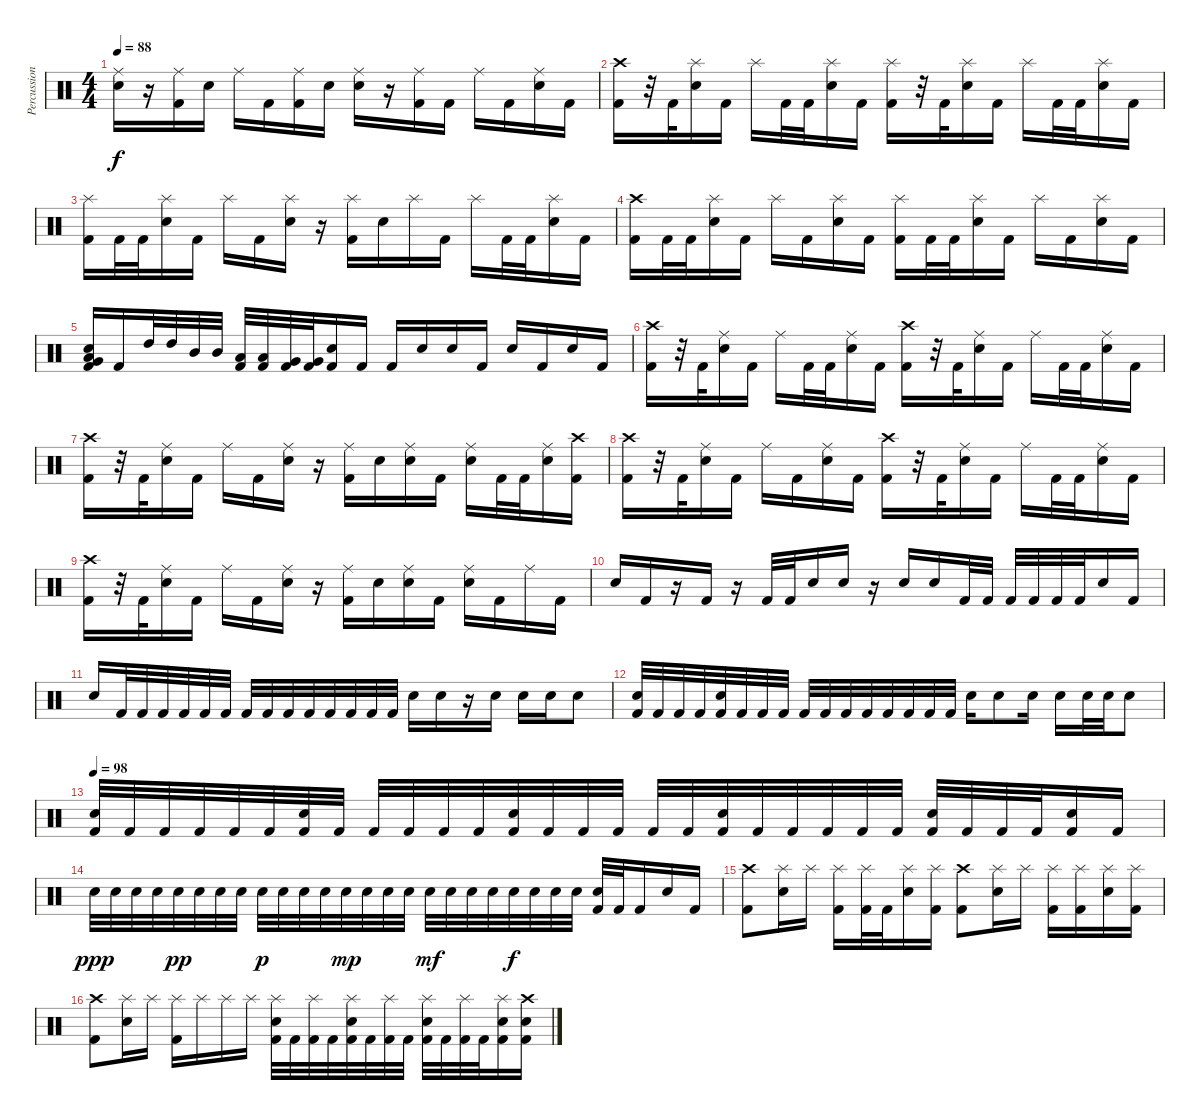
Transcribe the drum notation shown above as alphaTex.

\track ("Percussion" "Percussion") {instrument percussion}
\staff {score}
\articulation defaults
\ts (4 4)
\tempo 88
\clef neutral
\ks c
("Ride (middle)" "Snare (hit) 2").16{dy f} r.16 ("Ride (middle)" "Kick (hit) 2").16 "Snare (hit) 2".16 "Ride (middle)".16 "Kick (hit) 2".16 ("Ride (middle)" "Kick (hit) 2").16 "Snare (hit) 2".16 ("Ride (middle)" "Snare (hit) 2").16 r.16 ("Ride (middle)" "Kick (hit) 2").16 "Kick (hit) 2".16 "Ride (middle)".16 "Kick (hit) 2".16 ("Ride (middle)" "Snare (hit) 2").16 "Kick (hit) 2".16 |
("Crash high (hit)" "Kick (hit) 2").16 r.32 "Kick (hit) 2".32 ("Splash (hit)" "Snare (hit) 2").16 "Kick (hit) 2".16 "Splash (hit)".16 "Kick (hit) 2".32 "Kick (hit) 2".32 ("Splash (hit)" "Snare (hit) 2").16 "Kick (hit) 2".16 ("Splash (hit)" "Kick (hit) 2").16 r.32 "Kick (hit) 2".32 ("Splash (hit)" "Snare (hit) 2").16 "Kick (hit) 2".16 "Splash (hit)".16 "Kick (hit) 2".32 "Kick (hit) 2".32 ("Splash (hit)" "Snare (hit) 2").16 "Kick (hit) 2".16 |
("Splash (hit)" "Kick (hit) 2").16 "Kick (hit) 2".32 "Kick (hit) 2".32 ("Splash (hit)" "Snare (hit) 2").16 "Kick (hit) 2".16 "Splash (hit)".16 "Kick (hit) 2".16 ("Splash (hit)" "Snare (hit) 2").16 r.16 ("Splash (hit)" "Kick (hit) 2").16 "Snare (hit) 2".16 "Splash (hit)".16 "Kick (hit) 2".16 "Splash (hit)".16 "Kick (hit) 2".32 "Kick (hit) 2".32 ("Splash (hit)" "Snare (hit) 2").16 "Kick (hit) 2".16 |
("Crash high (hit)" "Kick (hit) 2").16 "Kick (hit) 2".32 "Kick (hit) 2".32 ("Splash (hit)" "Snare (hit) 2").16 "Kick (hit) 2".16 "Splash (hit)".16 "Kick (hit) 2".16 ("Splash (hit)" "Snare (hit) 2").16 "Kick (hit) 2".16 ("Splash (hit)" "Kick (hit) 2").16 "Kick (hit) 2".32 "Kick (hit) 2".32 ("Splash (hit)" "Snare (hit) 2").16 "Kick (hit) 2".16 "Splash (hit)".16 "Kick (hit) 2".16 ("Splash (hit)" "Snare (hit) 2").16 "Kick (hit) 2".16 |
("Snare (hit) 2" "Low Floor Tom (hit)" "Very Low Tom (hit)" "Kick (hit) 2").16 "Kick (hit) 2".16 "High Tom (hit)".32 "High Tom (hit)".32 "Mid Tom (hit)".32 "Mid Tom (hit)".32 ("Low Tom (hit)" "Kick (hit) 2").32 ("Low Tom (hit)" "Kick (hit) 2").32 ("Very Low Tom (hit)" "Kick (hit) 2").32 ("Very Low Tom (hit)" "Kick (hit) 2").32 ("Snare (hit) 2" "Kick (hit) 2").16 "Kick (hit) 2".16 "Kick (hit) 2".16 "Snare (hit) 2".16 "Snare (hit) 2".16 "Kick (hit) 2".16 "Snare (hit) 2".16 "Kick (hit) 2".16 "Snare (hit) 2".16 "Kick (hit) 2".16 |
("Crash high (hit)" "Kick (hit) 2").16 r.32 "Kick (hit) 2".32 ("Ride (middle)" "Snare (hit) 2").16 "Kick (hit) 2".16 "Ride (middle)".16 "Kick (hit) 2".32 "Kick (hit) 2".32 ("Ride (middle)" "Snare (hit) 2").16 "Kick (hit) 2".16 ("Crash high (hit)" "Kick (hit) 2").16 r.32 "Kick (hit) 2".32 ("Ride (middle)" "Snare (hit) 2").16 "Kick (hit) 2".16 "Ride (middle)".16 "Kick (hit) 2".32 "Kick (hit) 2".32 ("Ride (middle)" "Snare (hit) 2").16 "Kick (hit) 2".16 |
("Crash high (hit)" "Kick (hit) 2").16 r.32 "Kick (hit) 2".32 ("Ride (middle)" "Snare (hit) 2").16 "Kick (hit) 2".16 "Ride (middle)".16 "Kick (hit) 2".16 ("Ride (middle)" "Snare (hit) 2").16 r.16 ("Ride (middle)" "Kick (hit) 2").16 "Snare (hit) 2".16 ("Ride (middle)" "Snare (hit) 2").16 "Kick (hit) 2".16 ("Ride (middle)" "Snare (hit) 2").16 "Kick (hit) 2".32 "Kick (hit) 2".32 ("Ride (middle)" "Snare (hit) 2").16 ("Crash high (hit)" "Kick (hit) 2").16 |
("Crash high (hit)" "Kick (hit) 2").16 r.32 "Kick (hit) 2".32 ("Ride (middle)" "Snare (hit) 2").16 "Kick (hit) 2".16 "Ride (middle)".16 "Kick (hit) 2".16 ("Ride (middle)" "Snare (hit) 2").16 "Kick (hit) 2".16 ("Crash high (hit)" "Kick (hit) 2").16 r.32 "Kick (hit) 2".32 ("Ride (middle)" "Snare (hit) 2").16 "Kick (hit) 2".16 "Ride (middle)".16 "Kick (hit) 2".32 "Kick (hit) 2".32 ("Ride (middle)" "Snare (hit) 2").16 "Kick (hit) 2".16 |
("Crash high (hit)" "Kick (hit) 2").16 r.32 "Kick (hit) 2".32 ("Ride (middle)" "Snare (hit) 2").16 "Kick (hit) 2".16 "Ride (middle)".16 "Kick (hit) 2".16 ("Ride (middle)" "Snare (hit) 2").16 r.16 ("Ride (middle)" "Kick (hit) 2").16 "Snare (hit) 2".16 ("Ride (middle)" "Snare (hit) 2").16 "Kick (hit) 2".16 ("Ride (middle)" "Snare (hit) 2").16 "Kick (hit) 2".16 "Ride (middle)".16 "Kick (hit) 2".16 |
"Snare (hit) 2".16 "Kick (hit) 2".16 r.16 "Kick (hit) 2".16 r.16 "Kick (hit) 2".32 "Kick (hit) 2".32 "Snare (hit) 2".16 "Snare (hit) 2".16 r.16 "Snare (hit) 2".16 "Snare (hit) 2".16 "Kick (hit) 2".32 "Kick (hit) 2".32 "Kick (hit) 2".32 "Kick (hit) 2".32 "Kick (hit) 2".32 "Kick (hit) 2".32 "Snare (hit) 2".16 "Kick (hit) 2".16 |
"Snare (hit) 2".16 "Kick (hit) 2".32 "Kick (hit) 2".32 "Kick (hit) 2".32 "Kick (hit) 2".32 "Kick (hit) 2".32 "Kick (hit) 2".32 "Kick (hit) 2".32 "Kick (hit) 2".32 "Kick (hit) 2".32 "Kick (hit) 2".32 "Kick (hit) 2".32 "Kick (hit) 2".32 "Kick (hit) 2".32 "Kick (hit) 2".32 "Snare (hit) 2".16 "Snare (hit) 2".16 r.16 "Snare (hit) 2".16 "Snare (hit) 2".16 "Snare (hit) 2".16 "Snare (hit) 2".8 |
("Snare (hit) 2" "Kick (hit) 2").32 "Kick (hit) 2".32 "Kick (hit) 2".32 "Kick (hit) 2".32 ("Snare (hit) 2" "Kick (hit) 2").32 "Kick (hit) 2".32 "Kick (hit) 2".32 "Kick (hit) 2".32 "Kick (hit) 2".32 "Kick (hit) 2".32 "Kick (hit) 2".32 "Kick (hit) 2".32 "Kick (hit) 2".32 "Kick (hit) 2".32 "Kick (hit) 2".32 "Kick (hit) 2".32 "Snare (hit) 2".16 "Snare (hit) 2".8 "Snare (hit) 2".16 "Snare (hit) 2".16 "Snare (hit) 2".32 "Snare (hit) 2".32 "Snare (hit) 2".8 |
\tempo 98
("Snare (hit) 2" "Kick (hit) 2").32 "Kick (hit) 2".32 "Kick (hit) 2".32 "Kick (hit) 2".32 "Kick (hit) 2".32 "Kick (hit) 2".32 ("Snare (hit) 2" "Kick (hit) 2").32 "Kick (hit) 2".32 "Kick (hit) 2".32 "Kick (hit) 2".32 "Kick (hit) 2".32 "Kick (hit) 2".32 ("Snare (hit) 2" "Kick (hit) 2").32 "Kick (hit) 2".32 "Kick (hit) 2".32 "Kick (hit) 2".32 "Kick (hit) 2".32 "Kick (hit) 2".32 ("Snare (hit) 2" "Kick (hit) 2").32 "Kick (hit) 2".32 "Kick (hit) 2".32 "Kick (hit) 2".32 "Kick (hit) 2".32 "Kick (hit) 2".32 ("Snare (hit) 2" "Kick (hit) 2").32 "Kick (hit) 2".32 "Kick (hit) 2".32 "Kick (hit) 2".32 ("Snare (hit) 2" "Kick (hit) 2").16 "Kick (hit) 2".16 |
"Snare (hit) 2".32{dy ppp} "Snare (hit) 2".32 "Snare (hit) 2".32 "Snare (hit) 2".32 "Snare (hit) 2".32{dy pp} "Snare (hit) 2".32 "Snare (hit) 2".32 "Snare (hit) 2".32 "Snare (hit) 2".32{dy p} "Snare (hit) 2".32 "Snare (hit) 2".32 "Snare (hit) 2".32 "Snare (hit) 2".32{dy mp} "Snare (hit) 2".32 "Snare (hit) 2".32 "Snare (hit) 2".32 "Snare (hit) 2".32{dy mf} "Snare (hit) 2".32 "Snare (hit) 2".32 "Snare (hit) 2".32 "Snare (hit) 2".32{dy f} "Snare (hit) 2".32 "Snare (hit) 2".32 "Snare (hit) 2".32 ("Snare (hit) 2" "Kick (hit) 2").32 "Kick (hit) 2".32 "Kick (hit) 2".16 "Snare (hit) 2".16 "Kick (hit) 2".16 |
("Crash high (hit)" "Kick (hit) 2").8 ("Splash (hit)" "Snare (hit) 2").16 "Splash (hit)".16 ("Splash (hit)" "Kick (hit) 2").16 ("Splash (hit)" "Kick (hit) 2").32 "Kick (hit) 2".32 ("Splash (hit)" "Snare (hit) 2").16 ("Splash (hit)" "Kick (hit) 2").16 ("Crash high (hit)" "Kick (hit) 2").8 ("Splash (hit)" "Snare (hit) 2").16 "Splash (hit)".16 ("Splash (hit)" "Kick (hit) 2").16 ("Splash (hit)" "Kick (hit) 2").16 ("Splash (hit)" "Snare (hit) 2").16 ("Splash (hit)" "Kick (hit) 2").16 |
("Crash high (hit)" "Kick (hit) 2").8 ("Splash (hit)" "Snare (hit) 2").16 "Splash (hit)".16 ("Splash (hit)" "Kick (hit) 2").16 "Splash (hit)".16 "Splash (hit)".16 "Splash (hit)".16 ("Splash (hit)" "Snare (hit) 2" "Kick (hit) 2").32 "Kick (hit) 2".32 ("Splash (hit)" "Kick (hit) 2").32 "Kick (hit) 2".32 ("Splash (hit)" "Snare (hit) 2" "Kick (hit) 2").32 "Kick (hit) 2".32 ("Splash (hit)" "Kick (hit) 2").32 "Kick (hit) 2".32 ("Splash (hit)" "Snare (hit) 2" "Kick (hit) 2").32 "Kick (hit) 2".32 ("Splash (hit)" "Kick (hit) 2").32 "Kick (hit) 2".32 ("Splash (hit)" "Snare (hit) 2" "Kick (hit) 2").16 ("Crash high (hit)" "Snare (hit) 2" "Kick (hit) 2").16
